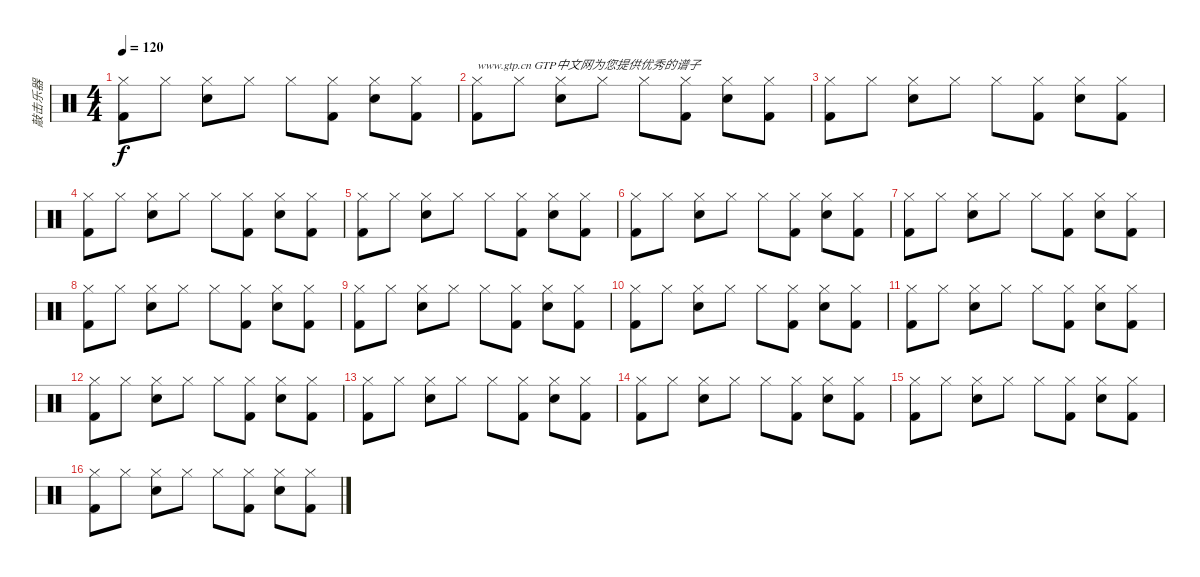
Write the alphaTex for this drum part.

\track ("敲击乐器" "敲击乐器") {instrument percussion}
\staff {score}
\articulation defaults
\ts (4 4)
\tempo 120
\clef neutral
\ks c
("Hi-Hat (closed)" "Kick (hit) 2").8{dy f} "Hi-Hat (closed)".8 ("Hi-Hat (closed)" "Snare (hit) 2").8 "Hi-Hat (closed)".8 "Hi-Hat (closed)".8 ("Hi-Hat (closed)" "Kick (hit) 2").8 ("Hi-Hat (closed)" "Snare (hit) 2").8 ("Hi-Hat (closed)" "Kick (hit) 2").8 |
("Hi-Hat (closed)" "Kick (hit) 2").8{txt "www.gtp.cn GTP中文网为您提供优秀的谱子"} "Hi-Hat (closed)".8 ("Hi-Hat (closed)" "Snare (hit) 2").8 "Hi-Hat (closed)".8 "Hi-Hat (closed)".8 ("Hi-Hat (closed)" "Kick (hit) 2").8 ("Hi-Hat (closed)" "Snare (hit) 2").8 ("Hi-Hat (closed)" "Kick (hit) 2").8 |
("Hi-Hat (closed)" "Kick (hit) 2").8 "Hi-Hat (closed)".8 ("Hi-Hat (closed)" "Snare (hit) 2").8 "Hi-Hat (closed)".8 "Hi-Hat (closed)".8 ("Hi-Hat (closed)" "Kick (hit) 2").8 ("Hi-Hat (closed)" "Snare (hit) 2").8 ("Hi-Hat (closed)" "Kick (hit) 2").8 |
("Hi-Hat (closed)" "Kick (hit) 2").8 "Hi-Hat (closed)".8 ("Hi-Hat (closed)" "Snare (hit) 2").8 "Hi-Hat (closed)".8 "Hi-Hat (closed)".8 ("Hi-Hat (closed)" "Kick (hit) 2").8 ("Hi-Hat (closed)" "Snare (hit) 2").8 ("Hi-Hat (closed)" "Kick (hit) 2").8 |
("Hi-Hat (closed)" "Kick (hit) 2").8 "Hi-Hat (closed)".8 ("Hi-Hat (closed)" "Snare (hit) 2").8 "Hi-Hat (closed)".8 "Hi-Hat (closed)".8 ("Hi-Hat (closed)" "Kick (hit) 2").8 ("Hi-Hat (closed)" "Snare (hit) 2").8 ("Hi-Hat (closed)" "Kick (hit) 2").8 |
("Hi-Hat (closed)" "Kick (hit) 2").8 "Hi-Hat (closed)".8 ("Hi-Hat (closed)" "Snare (hit) 2").8 "Hi-Hat (closed)".8 "Hi-Hat (closed)".8 ("Hi-Hat (closed)" "Kick (hit) 2").8 ("Hi-Hat (closed)" "Snare (hit) 2").8 ("Hi-Hat (closed)" "Kick (hit) 2").8 |
("Hi-Hat (closed)" "Kick (hit) 2").8 "Hi-Hat (closed)".8 ("Hi-Hat (closed)" "Snare (hit) 2").8 "Hi-Hat (closed)".8 "Hi-Hat (closed)".8 ("Hi-Hat (closed)" "Kick (hit) 2").8 ("Hi-Hat (closed)" "Snare (hit) 2").8 ("Hi-Hat (closed)" "Kick (hit) 2").8 |
("Hi-Hat (closed)" "Kick (hit) 2").8 "Hi-Hat (closed)".8 ("Hi-Hat (closed)" "Snare (hit) 2").8 "Hi-Hat (closed)".8 "Hi-Hat (closed)".8 ("Hi-Hat (closed)" "Kick (hit) 2").8 ("Hi-Hat (closed)" "Snare (hit) 2").8 ("Hi-Hat (closed)" "Kick (hit) 2").8 |
("Hi-Hat (closed)" "Kick (hit) 2").8 "Hi-Hat (closed)".8 ("Hi-Hat (closed)" "Snare (hit) 2").8 "Hi-Hat (closed)".8 "Hi-Hat (closed)".8 ("Hi-Hat (closed)" "Kick (hit) 2").8 ("Hi-Hat (closed)" "Snare (hit) 2").8 ("Hi-Hat (closed)" "Kick (hit) 2").8 |
("Hi-Hat (closed)" "Kick (hit) 2").8 "Hi-Hat (closed)".8 ("Hi-Hat (closed)" "Snare (hit) 2").8 "Hi-Hat (closed)".8 "Hi-Hat (closed)".8 ("Hi-Hat (closed)" "Kick (hit) 2").8 ("Hi-Hat (closed)" "Snare (hit) 2").8 ("Hi-Hat (closed)" "Kick (hit) 2").8 |
("Hi-Hat (closed)" "Kick (hit) 2").8 "Hi-Hat (closed)".8 ("Hi-Hat (closed)" "Snare (hit) 2").8 "Hi-Hat (closed)".8 "Hi-Hat (closed)".8 ("Hi-Hat (closed)" "Kick (hit) 2").8 ("Hi-Hat (closed)" "Snare (hit) 2").8 ("Hi-Hat (closed)" "Kick (hit) 2").8 |
("Hi-Hat (closed)" "Kick (hit) 2").8 "Hi-Hat (closed)".8 ("Hi-Hat (closed)" "Snare (hit) 2").8 "Hi-Hat (closed)".8 "Hi-Hat (closed)".8 ("Hi-Hat (closed)" "Kick (hit) 2").8 ("Hi-Hat (closed)" "Snare (hit) 2").8 ("Hi-Hat (closed)" "Kick (hit) 2").8 |
("Hi-Hat (closed)" "Kick (hit) 2").8 "Hi-Hat (closed)".8 ("Hi-Hat (closed)" "Snare (hit) 2").8 "Hi-Hat (closed)".8 "Hi-Hat (closed)".8 ("Hi-Hat (closed)" "Kick (hit) 2").8 ("Hi-Hat (closed)" "Snare (hit) 2").8 ("Hi-Hat (closed)" "Kick (hit) 2").8 |
("Hi-Hat (closed)" "Kick (hit) 2").8 "Hi-Hat (closed)".8 ("Hi-Hat (closed)" "Snare (hit) 2").8 "Hi-Hat (closed)".8 "Hi-Hat (closed)".8 ("Hi-Hat (closed)" "Kick (hit) 2").8 ("Hi-Hat (closed)" "Snare (hit) 2").8 ("Hi-Hat (closed)" "Kick (hit) 2").8 |
("Hi-Hat (closed)" "Kick (hit) 2").8 "Hi-Hat (closed)".8 ("Hi-Hat (closed)" "Snare (hit) 2").8 "Hi-Hat (closed)".8 "Hi-Hat (closed)".8 ("Hi-Hat (closed)" "Kick (hit) 2").8 ("Hi-Hat (closed)" "Snare (hit) 2").8 ("Hi-Hat (closed)" "Kick (hit) 2").8 |
("Hi-Hat (closed)" "Kick (hit) 2").8 "Hi-Hat (closed)".8 ("Hi-Hat (closed)" "Snare (hit) 2").8 "Hi-Hat (closed)".8 "Hi-Hat (closed)".8 ("Hi-Hat (closed)" "Kick (hit) 2").8 ("Hi-Hat (closed)" "Snare (hit) 2").8 ("Hi-Hat (closed)" "Kick (hit) 2").8
